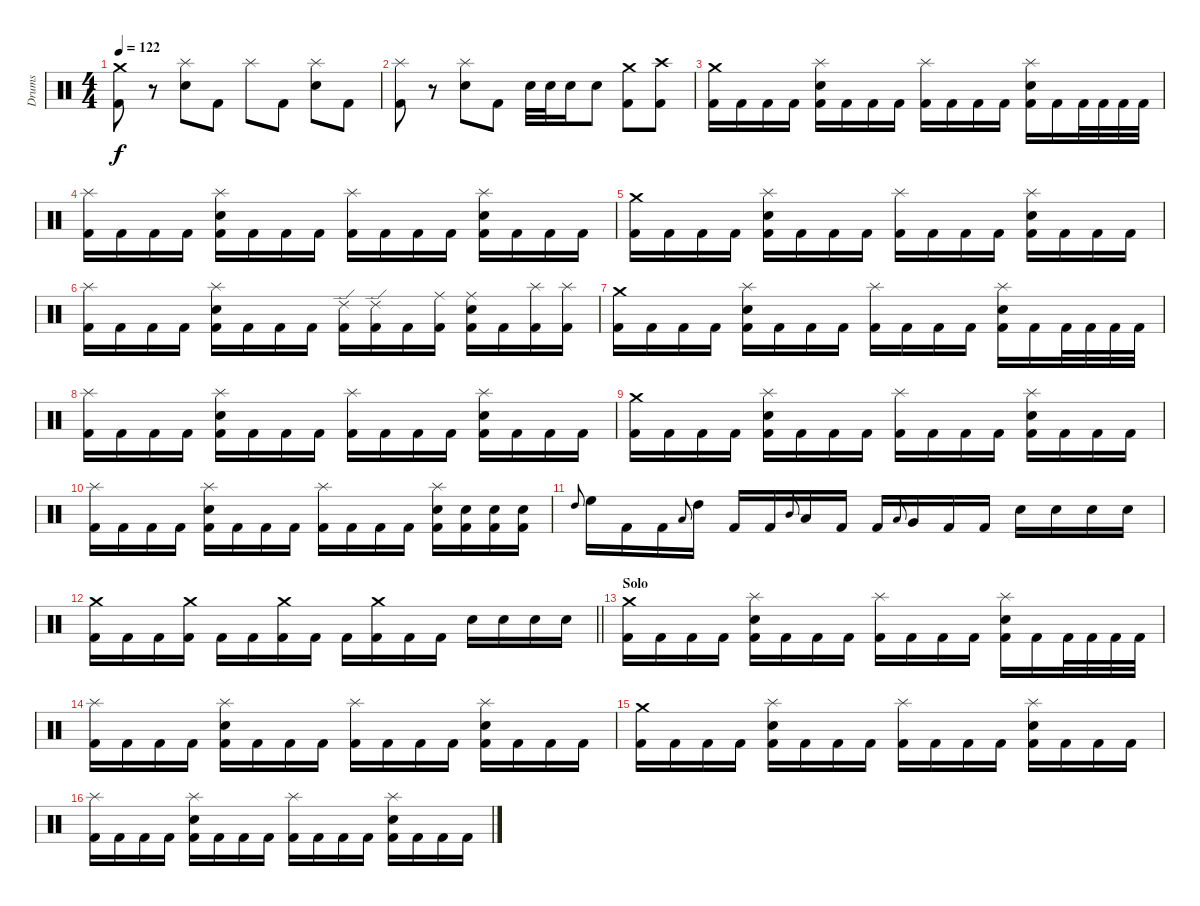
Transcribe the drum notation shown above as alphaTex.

\track ("Drums" "Drums") {instrument percussion}
\staff {score}
\articulation defaults
\ts (4 4)
\tempo 122
\clef neutral
\ks c
("Kick (hit) 2" "Crash medium (hit)").8{dy f} r.8 ("Snare (hit) 2" "Splash (hit)").8 "Kick (hit) 2".8 "Splash (hit)".8 "Kick (hit) 2".8 ("Snare (hit) 2" "Splash (hit)").8 "Kick (hit) 2".8 |
("Kick (hit) 2" "Splash (hit)").8 r.8 ("Snare (hit) 2" "Splash (hit)").8 "Kick (hit) 2".8 "Snare (hit) 2".32 "Snare (hit) 2".32 "Snare (hit) 2".16 "Snare (hit) 2".8 ("Kick (hit) 2" "Crash medium (hit)").8 ("Kick (hit) 2" "Crash high (hit)").8 |
("Kick (hit) 2" "Crash medium (hit)").16 "Kick (hit) 2".16 "Kick (hit) 2".16 "Kick (hit) 2".16 ("Kick (hit) 2" "Snare (hit) 2" "Splash (hit)").16 "Kick (hit) 2".16 "Kick (hit) 2".16 "Kick (hit) 2".16 ("Kick (hit) 2" "Splash (hit)").16 "Kick (hit) 2".16 "Kick (hit) 2".16 "Kick (hit) 2".16 ("Kick (hit) 2" "Snare (hit) 2" "Splash (hit)").16 "Kick (hit) 2".16 "Kick (hit) 2".32 "Kick (hit) 2".32 "Kick (hit) 2".32 "Kick (hit) 2".32 |
("Kick (hit) 2" "Splash (hit)").16 "Kick (hit) 2".16 "Kick (hit) 2".16 "Kick (hit) 2".16 ("Kick (hit) 2" "Snare (hit) 2" "Splash (hit)").16 "Kick (hit) 2".16 "Kick (hit) 2".16 "Kick (hit) 2".16 ("Kick (hit) 2" "Splash (hit)").16 "Kick (hit) 2".16 "Kick (hit) 2".16 "Kick (hit) 2".16 ("Kick (hit) 2" "Snare (hit) 2" "Splash (hit)").16 "Kick (hit) 2".16 "Kick (hit) 2".16 "Kick (hit) 2".16 |
("Kick (hit) 2" "Crash medium (hit)").16 "Kick (hit) 2".16 "Kick (hit) 2".16 "Kick (hit) 2".16 ("Kick (hit) 2" "Snare (hit) 2" "Splash (hit)").16 "Kick (hit) 2".16 "Kick (hit) 2".16 "Kick (hit) 2".16 ("Kick (hit) 2" "Splash (hit)").16 "Kick (hit) 2".16 "Kick (hit) 2".16 "Kick (hit) 2".16 ("Kick (hit) 2" "Snare (hit) 2" "Splash (hit)").16 "Kick (hit) 2".16 "Kick (hit) 2".16 "Kick (hit) 2".16 |
("Kick (hit) 2" "Splash (hit)").16 "Kick (hit) 2".16 "Kick (hit) 2".16 "Kick (hit) 2".16 ("Kick (hit) 2" "Snare (hit) 2" "Splash (hit)").16 "Kick (hit) 2".16 "Kick (hit) 2".16 "Kick (hit) 2".16 ("Kick (hit) 2" "Ride (edge) 2").16 ("Kick (hit) 2" "Ride (edge) 2").16 "Kick (hit) 2".16 ("Kick (hit) 2" "Ride (middle)").16 ("Kick (hit) 2" "Snare (hit) 2" "Ride (middle)").16 "Kick (hit) 2".16 ("Kick (hit) 2" "Splash (hit)").16 ("Kick (hit) 2" "Splash (hit)").16 |
("Kick (hit) 2" "Crash medium (hit)").16 "Kick (hit) 2".16 "Kick (hit) 2".16 "Kick (hit) 2".16 ("Kick (hit) 2" "Snare (hit) 2" "Splash (hit)").16 "Kick (hit) 2".16 "Kick (hit) 2".16 "Kick (hit) 2".16 ("Kick (hit) 2" "Splash (hit)").16 "Kick (hit) 2".16 "Kick (hit) 2".16 "Kick (hit) 2".16 ("Kick (hit) 2" "Snare (hit) 2" "Splash (hit)").16 "Kick (hit) 2".16 "Kick (hit) 2".32 "Kick (hit) 2".32 "Kick (hit) 2".32 "Kick (hit) 2".32 |
("Kick (hit) 2" "Splash (hit)").16 "Kick (hit) 2".16 "Kick (hit) 2".16 "Kick (hit) 2".16 ("Kick (hit) 2" "Snare (hit) 2" "Splash (hit)").16 "Kick (hit) 2".16 "Kick (hit) 2".16 "Kick (hit) 2".16 ("Kick (hit) 2" "Splash (hit)").16 "Kick (hit) 2".16 "Kick (hit) 2".16 "Kick (hit) 2".16 ("Kick (hit) 2" "Snare (hit) 2" "Splash (hit)").16 "Kick (hit) 2".16 "Kick (hit) 2".16 "Kick (hit) 2".16 |
("Kick (hit) 2" "Crash medium (hit)").16 "Kick (hit) 2".16 "Kick (hit) 2".16 "Kick (hit) 2".16 ("Kick (hit) 2" "Snare (hit) 2" "Splash (hit)").16 "Kick (hit) 2".16 "Kick (hit) 2".16 "Kick (hit) 2".16 ("Kick (hit) 2" "Splash (hit)").16 "Kick (hit) 2".16 "Kick (hit) 2".16 "Kick (hit) 2".16 ("Kick (hit) 2" "Snare (hit) 2" "Splash (hit)").16 "Kick (hit) 2".16 "Kick (hit) 2".16 "Kick (hit) 2".16 |
("Kick (hit) 2" "Splash (hit)").16 "Kick (hit) 2".16 "Kick (hit) 2".16 "Kick (hit) 2".16 ("Kick (hit) 2" "Snare (hit) 2" "Splash (hit)").16 "Kick (hit) 2".16 "Kick (hit) 2".16 "Kick (hit) 2".16 ("Kick (hit) 2" "Splash (hit)").16 "Kick (hit) 2".16 "Kick (hit) 2".16 "Kick (hit) 2".16 ("Kick (hit) 2" "Snare (hit) 2" "Splash (hit)").16 ("Kick (hit) 2" "Snare (hit) 2").16 ("Kick (hit) 2" "Snare (hit) 2").16 ("Kick (hit) 2" "Snare (hit) 2").16 |
"High Tom (hit)".8{gr onbeat} "High Floor Tom (hit)".16 "Kick (hit) 2".16 "Kick (hit) 2".16 "Low Tom (hit)".8{gr onbeat} "High Tom (hit)".16 "Kick (hit) 2".16 "Kick (hit) 2".16 "Mid Tom (hit)".8{gr onbeat} "Low Tom (hit)".16 "Kick (hit) 2".16 "Kick (hit) 2".16 "Low Floor Tom (hit)".8{gr onbeat} "Very Low Tom (hit)".16 "Kick (hit) 2".16 "Kick (hit) 2".16 "Snare (hit) 2".16 "Snare (hit) 2".16 "Snare (hit) 2".16 "Snare (hit) 2".16 |
\barLineRight lightlight
("Kick (hit) 2" "Crash medium (hit)").16 "Kick (hit) 2".16 "Kick (hit) 2".16 ("Kick (hit) 2" "Crash medium (hit)").16 "Kick (hit) 2".16 "Kick (hit) 2".16 ("Kick (hit) 2" "Crash medium (hit)").16 "Kick (hit) 2".16 "Kick (hit) 2".16 ("Kick (hit) 2" "Crash medium (hit)").16 "Kick (hit) 2".16 "Kick (hit) 2".16 "Snare (hit) 2".16 "Snare (hit) 2".16 "Snare (hit) 2".16 "Snare (hit) 2".16 |
\section ("" "Solo")
("Kick (hit) 2" "Crash medium (hit)").16 "Kick (hit) 2".16 "Kick (hit) 2".16 "Kick (hit) 2".16 ("Kick (hit) 2" "Snare (hit) 2" "Splash (hit)").16 "Kick (hit) 2".16 "Kick (hit) 2".16 "Kick (hit) 2".16 ("Kick (hit) 2" "Splash (hit)").16 "Kick (hit) 2".16 "Kick (hit) 2".16 "Kick (hit) 2".16 ("Kick (hit) 2" "Snare (hit) 2" "Splash (hit)").16 "Kick (hit) 2".16 "Kick (hit) 2".32 "Kick (hit) 2".32 "Kick (hit) 2".32 "Kick (hit) 2".32 |
("Kick (hit) 2" "Splash (hit)").16 "Kick (hit) 2".16 "Kick (hit) 2".16 "Kick (hit) 2".16 ("Kick (hit) 2" "Snare (hit) 2" "Splash (hit)").16 "Kick (hit) 2".16 "Kick (hit) 2".16 "Kick (hit) 2".16 ("Kick (hit) 2" "Splash (hit)").16 "Kick (hit) 2".16 "Kick (hit) 2".16 "Kick (hit) 2".16 ("Kick (hit) 2" "Snare (hit) 2" "Splash (hit)").16 "Kick (hit) 2".16 "Kick (hit) 2".16 "Kick (hit) 2".16 |
("Kick (hit) 2" "Crash medium (hit)").16 "Kick (hit) 2".16 "Kick (hit) 2".16 "Kick (hit) 2".16 ("Kick (hit) 2" "Snare (hit) 2" "Splash (hit)").16 "Kick (hit) 2".16 "Kick (hit) 2".16 "Kick (hit) 2".16 ("Kick (hit) 2" "Splash (hit)").16 "Kick (hit) 2".16 "Kick (hit) 2".16 "Kick (hit) 2".16 ("Kick (hit) 2" "Snare (hit) 2" "Splash (hit)").16 "Kick (hit) 2".16 "Kick (hit) 2".16 "Kick (hit) 2".16 |
("Kick (hit) 2" "Splash (hit)").16 "Kick (hit) 2".16 "Kick (hit) 2".16 "Kick (hit) 2".16 ("Kick (hit) 2" "Snare (hit) 2" "Splash (hit)").16 "Kick (hit) 2".16 "Kick (hit) 2".16 "Kick (hit) 2".16 ("Kick (hit) 2" "Splash (hit)").16 "Kick (hit) 2".16 "Kick (hit) 2".16 "Kick (hit) 2".16 ("Kick (hit) 2" "Snare (hit) 2" "Splash (hit)").16 "Kick (hit) 2".16 "Kick (hit) 2".16 "Kick (hit) 2".16
